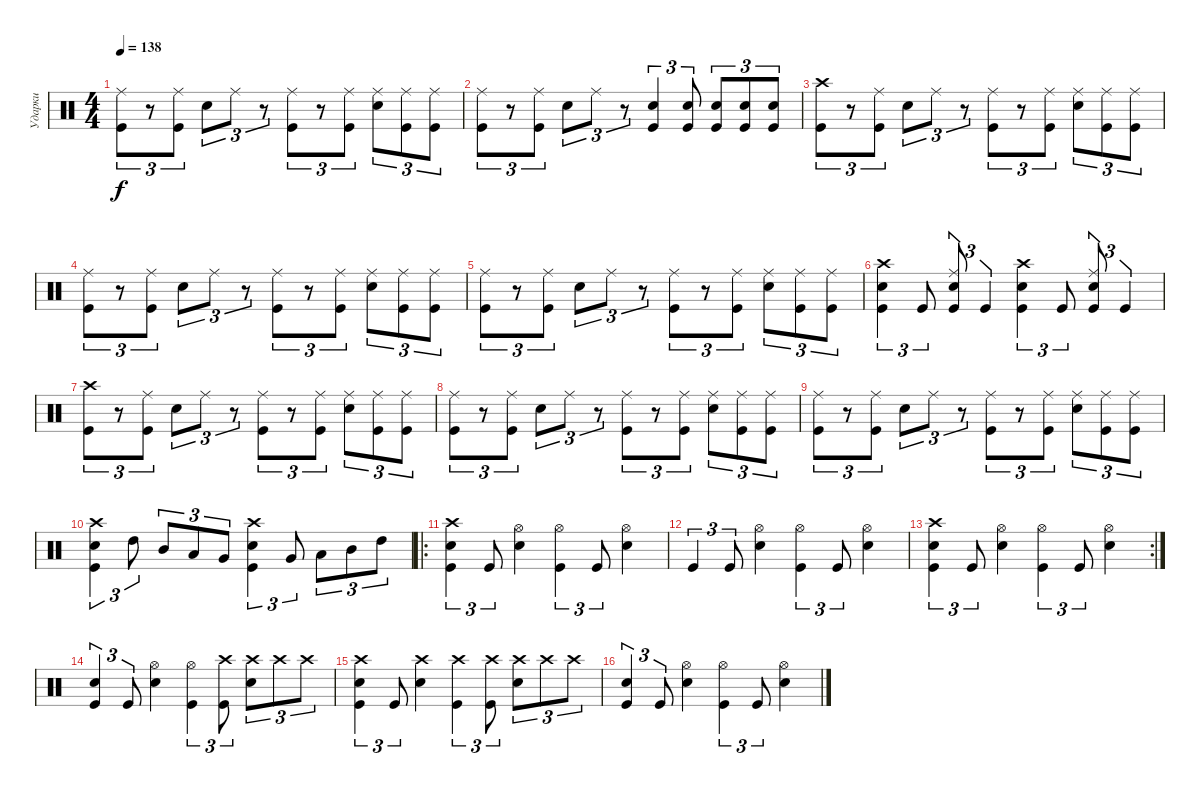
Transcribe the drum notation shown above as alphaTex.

\track ("Ударки" "Ударки") {instrument percussion}
\staff {score}
\articulation defaults
\ts (4 4)
\tempo 138
\clef neutral
\ks c
("Kick (hit)" "Ride (middle)").8{tu (3 2) dy f} r.8{tu (3 2)} ("Kick (hit)" "Ride (middle)").8{tu (3 2)} "Snare (hit) 2".8{tu (3 2)} "Ride (middle)".8{tu (3 2)} r.8{tu (3 2)} ("Kick (hit)" "Ride (middle)").8{tu (3 2)} r.8{tu (3 2)} ("Ride (middle)" "Kick (hit)").8{tu (3 2)} ("Ride (middle)" "Snare (hit) 2").8{tu (3 2)} ("Kick (hit)" "Ride (middle)").8{tu (3 2)} ("Kick (hit)" "Ride (middle)").8{tu (3 2)} |
("Kick (hit)" "Ride (middle)").8{tu (3 2)} r.8{tu (3 2)} ("Kick (hit)" "Ride (middle)").8{tu (3 2)} "Snare (hit) 2".8{tu (3 2)} "Ride (middle)".8{tu (3 2)} r.8{tu (3 2)} ("Snare (hit) 2" "Kick (hit)").4{tu (3 2)} ("Kick (hit)" "Snare (hit) 2").8{tu (3 2)} ("Snare (hit) 2" "Kick (hit)").8{tu (3 2)} ("Snare (hit) 2" "Kick (hit)").8{tu (3 2)} ("Snare (hit) 2" "Kick (hit)").8{tu (3 2)} |
("Kick (hit)" "Crash high (hit)").8{tu (3 2)} r.8{tu (3 2)} ("Kick (hit)" "Ride (middle)").8{tu (3 2)} "Snare (hit) 2".8{tu (3 2)} "Ride (middle)".8{tu (3 2)} r.8{tu (3 2)} ("Kick (hit)" "Ride (middle)").8{tu (3 2)} r.8{tu (3 2)} ("Ride (middle)" "Kick (hit)").8{tu (3 2)} ("Ride (middle)" "Snare (hit) 2").8{tu (3 2)} ("Kick (hit)" "Ride (middle)").8{tu (3 2)} ("Kick (hit)" "Ride (middle)").8{tu (3 2)} |
("Kick (hit)" "Ride (middle)").8{tu (3 2)} r.8{tu (3 2)} ("Kick (hit)" "Ride (middle)").8{tu (3 2)} "Snare (hit) 2".8{tu (3 2)} "Ride (middle)".8{tu (3 2)} r.8{tu (3 2)} ("Kick (hit)" "Ride (middle)").8{tu (3 2)} r.8{tu (3 2)} ("Ride (middle)" "Kick (hit)").8{tu (3 2)} ("Ride (middle)" "Snare (hit) 2").8{tu (3 2)} ("Kick (hit)" "Ride (middle)").8{tu (3 2)} ("Kick (hit)" "Ride (middle)").8{tu (3 2)} |
("Kick (hit)" "Ride (middle)").8{tu (3 2)} r.8{tu (3 2)} ("Kick (hit)" "Ride (middle)").8{tu (3 2)} "Snare (hit) 2".8{tu (3 2)} "Ride (middle)".8{tu (3 2)} r.8{tu (3 2)} ("Kick (hit)" "Ride (middle)").8{tu (3 2)} r.8{tu (3 2)} ("Ride (middle)" "Kick (hit)").8{tu (3 2)} ("Ride (middle)" "Snare (hit) 2").8{tu (3 2)} ("Kick (hit)" "Ride (middle)").8{tu (3 2)} ("Kick (hit)" "Ride (middle)").8{tu (3 2)} |
("Kick (hit)" "Snare (hit) 2" "Crash high (hit)").4{tu (3 2)} "Kick (hit)".8{tu (3 2)} ("Kick (hit)" "Snare (hit) 2" "Ride (middle)").8{tu (3 2)} "Kick (hit)".4{tu (3 2)} ("Kick (hit)" "Snare (hit) 2" "Crash high (hit)").4{tu (3 2)} "Kick (hit)".8{tu (3 2)} ("Kick (hit)" "Snare (hit) 2" "Ride (middle)").8{tu (3 2)} "Kick (hit)".4{tu (3 2)} |
("Kick (hit)" "Crash high (hit)").8{tu (3 2)} r.8{tu (3 2)} ("Kick (hit)" "Ride (middle)").8{tu (3 2)} "Snare (hit) 2".8{tu (3 2)} "Ride (middle)".8{tu (3 2)} r.8{tu (3 2)} ("Kick (hit)" "Ride (middle)").8{tu (3 2)} r.8{tu (3 2)} ("Ride (middle)" "Kick (hit)").8{tu (3 2)} ("Ride (middle)" "Snare (hit) 2").8{tu (3 2)} ("Kick (hit)" "Ride (middle)").8{tu (3 2)} ("Kick (hit)" "Ride (middle)").8{tu (3 2)} |
("Kick (hit)" "Ride (middle)").8{tu (3 2)} r.8{tu (3 2)} ("Kick (hit)" "Ride (middle)").8{tu (3 2)} "Snare (hit) 2".8{tu (3 2)} "Ride (middle)".8{tu (3 2)} r.8{tu (3 2)} ("Kick (hit)" "Ride (middle)").8{tu (3 2)} r.8{tu (3 2)} ("Ride (middle)" "Kick (hit)").8{tu (3 2)} ("Ride (middle)" "Snare (hit) 2").8{tu (3 2)} ("Kick (hit)" "Ride (middle)").8{tu (3 2)} ("Kick (hit)" "Ride (middle)").8{tu (3 2)} |
("Kick (hit)" "Ride (middle)").8{tu (3 2)} r.8{tu (3 2)} ("Kick (hit)" "Ride (middle)").8{tu (3 2)} "Snare (hit) 2".8{tu (3 2)} "Ride (middle)".8{tu (3 2)} r.8{tu (3 2)} ("Kick (hit)" "Ride (middle)").8{tu (3 2)} r.8{tu (3 2)} ("Ride (middle)" "Kick (hit)").8{tu (3 2)} ("Ride (middle)" "Snare (hit) 2").8{tu (3 2)} ("Kick (hit)" "Ride (middle)").8{tu (3 2)} ("Kick (hit)" "Ride (middle)").8{tu (3 2)} |
("Crash high (hit)" "Kick (hit)" "Snare (hit) 2").4{tu (3 2)} "High Tom (hit)".8{tu (3 2)} "Mid Tom (hit)".8{tu (3 2)} "Low Tom (hit)".8{tu (3 2)} "Very Low Tom (hit)".8{tu (3 2)} ("Crash high (hit)" "Snare (hit) 2" "Kick (hit)").4{tu (3 2)} "Very Low Tom (hit)".8{tu (3 2)} "Low Tom (hit)".8{tu (3 2)} "Mid Tom (hit)".8{tu (3 2)} "High Tom (hit)".8{tu (3 2)} |
\ro
("Snare (hit) 2" "Kick (hit)" "Crash high (hit)").4{tu (3 2)} "Kick (hit)".8{tu (3 2)} ("Snare (hit) 2" "Hi-Hat (open)").4 ("Kick (hit)" "Hi-Hat (open)").4{tu (3 2)} "Kick (hit)".8{tu (3 2)} ("Snare (hit) 2" "Hi-Hat (open)").4 |
"Kick (hit)".4{tu (3 2)} "Kick (hit)".8{tu (3 2)} ("Snare (hit) 2" "Hi-Hat (open)").4 ("Kick (hit)" "Hi-Hat (open)").4{tu (3 2)} "Kick (hit)".8{tu (3 2)} ("Snare (hit) 2" "Hi-Hat (open)").4 |
\rc 2
("Snare (hit) 2" "Kick (hit)" "Crash high (hit)").4{tu (3 2)} "Kick (hit)".8{tu (3 2)} ("Snare (hit) 2" "Hi-Hat (open)").4 ("Kick (hit)" "Hi-Hat (open)").4{tu (3 2)} "Kick (hit)".8{tu (3 2)} ("Snare (hit) 2" "Hi-Hat (open)").4 |
("Snare (hit) 2" "Kick (hit)").4{tu (3 2)} "Kick (hit)".8{tu (3 2)} ("Snare (hit) 2" "Hi-Hat (open)").4 ("Kick (hit)" "Hi-Hat (open)").4{tu (3 2)} ("Kick (hit)" "Crash high (hit)").8{tu (3 2)} ("Snare (hit) 2" "Crash high (hit)").8{tu (3 2)} "Crash high (hit)".8{tu (3 2)} "Crash high (hit)".8{tu (3 2)} |
("Snare (hit) 2" "Kick (hit)" "Crash high (hit)").4{tu (3 2)} "Kick (hit)".8{tu (3 2)} ("Snare (hit) 2" "Crash high (hit)").4 ("Kick (hit)" "Crash high (hit)").4{tu (3 2)} ("Kick (hit)" "Crash high (hit)").8{tu (3 2)} ("Snare (hit) 2" "Crash high (hit)").8{tu (3 2)} "Crash high (hit)".8{tu (3 2)} "Crash high (hit)".8{tu (3 2)} |
("Snare (hit) 2" "Kick (hit)").4{tu (3 2)} "Kick (hit)".8{tu (3 2)} ("Snare (hit) 2" "Hi-Hat (open)").4 ("Kick (hit)" "Hi-Hat (open)").4{tu (3 2)} "Kick (hit)".8{tu (3 2)} ("Snare (hit) 2" "Hi-Hat (open)").4
